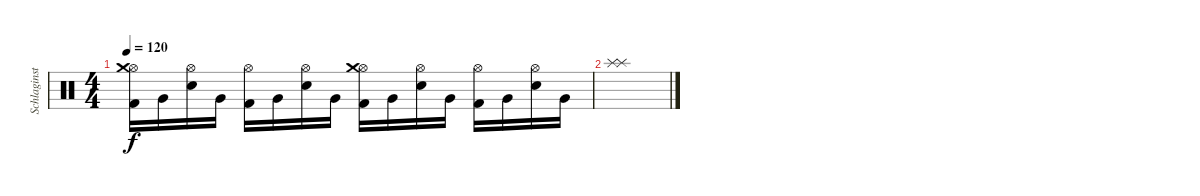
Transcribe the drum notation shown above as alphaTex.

\track ("Schlaginstrumente - Auswahl" "Schlaginst") {instrument percussion}
\staff {score}
\articulation defaults
\ts (4 4)
\tempo 120
\clef neutral
\ks c
("Kick (hit) 2" "Hi-Hat (open)" "Crash medium (hit)").16{dy f} "Very Low Tom (hit)".16 ("Electric Snare (hit)" "Hi-Hat (open)").16 "Very Low Tom (hit)".16 ("Kick (hit) 2" "Hi-Hat (open)").16 "Very Low Tom (hit)".16 ("Electric Snare (hit)" "Hi-Hat (open)").16 "Very Low Tom (hit)".16 ("Kick (hit) 2" "Hi-Hat (open)" "Crash medium (hit)").16 "Very Low Tom (hit)".16 ("Electric Snare (hit)" "Hi-Hat (open)").16 "Very Low Tom (hit)".16 ("Kick (hit) 2" "Hi-Hat (open)").16 "Very Low Tom (hit)".16 ("Electric Snare (hit)" "Hi-Hat (open)").16 "Very Low Tom (hit)".16 |
("Splash (hit)" "Splash (hit)").1
